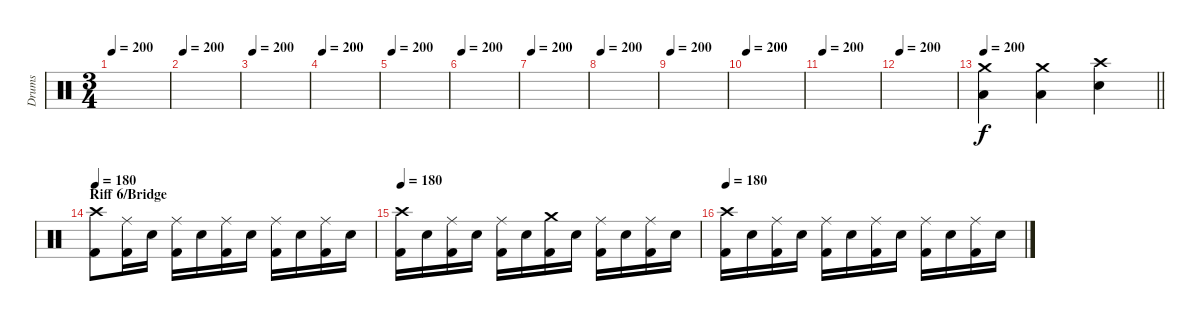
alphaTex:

\track ("Drums" "Drums") {instrument percussion}
\staff {score}
\articulation defaults
\ts (3 4)
\tempo 200
\clef neutral
\ks c
|
\tempo 200
|
\tempo 200
|
\tempo 200
|
\tempo 200
|
\tempo 200
|
\tempo 200
|
\tempo 200
|
\tempo 200
|
\tempo 200
|
\tempo 200
|
\tempo 200
|
\tempo 200
\barLineRight lightlight
("Crash medium (hit)" "Low Tom (hit)").4 ("Crash medium (hit)" "Low Tom (hit)").4 ("Crash high (hit)" "Electric Snare (hit)").4 |
\section ("" "Riff 6/Bridge")
\tempo 180
("Crash high (hit)" "Kick (hit) 2").8 ("Ride (middle)" "Kick (hit) 2").16 "Electric Snare (hit)".16 ("Ride (middle)" "Kick (hit) 2").16 "Electric Snare (hit)".16 ("Ride (middle)" "Kick (hit) 2").16 "Electric Snare (hit)".16 ("Ride (middle)" "Kick (hit) 2").16 "Electric Snare (hit)".16 ("Ride (middle)" "Kick (hit) 2").16 "Electric Snare (hit)".16 |
\tempo 180
("Crash high (hit)" "Kick (hit) 2").16 "Electric Snare (hit)".16 ("Ride (middle)" "Kick (hit) 2").16 "Electric Snare (hit)".16 ("Ride (middle)" "Kick (hit) 2").16 "Electric Snare (hit)".16 ("Crash medium (hit)" "Kick (hit) 2").16 "Electric Snare (hit)".16 ("Ride (middle)" "Kick (hit) 2").16 "Electric Snare (hit)".16 ("Ride (middle)" "Kick (hit) 2").16 "Electric Snare (hit)".16 |
\tempo 180
("Crash high (hit)" "Kick (hit) 2").16 "Electric Snare (hit)".16 ("Ride (middle)" "Kick (hit) 2").16 "Electric Snare (hit)".16 ("Ride (middle)" "Kick (hit) 2").16 "Electric Snare (hit)".16 ("Ride (middle)" "Kick (hit) 2").16 "Electric Snare (hit)".16 ("Ride (middle)" "Kick (hit) 2").16 "Electric Snare (hit)".16 ("Ride (middle)" "Kick (hit) 2").16 "Electric Snare (hit)".16
